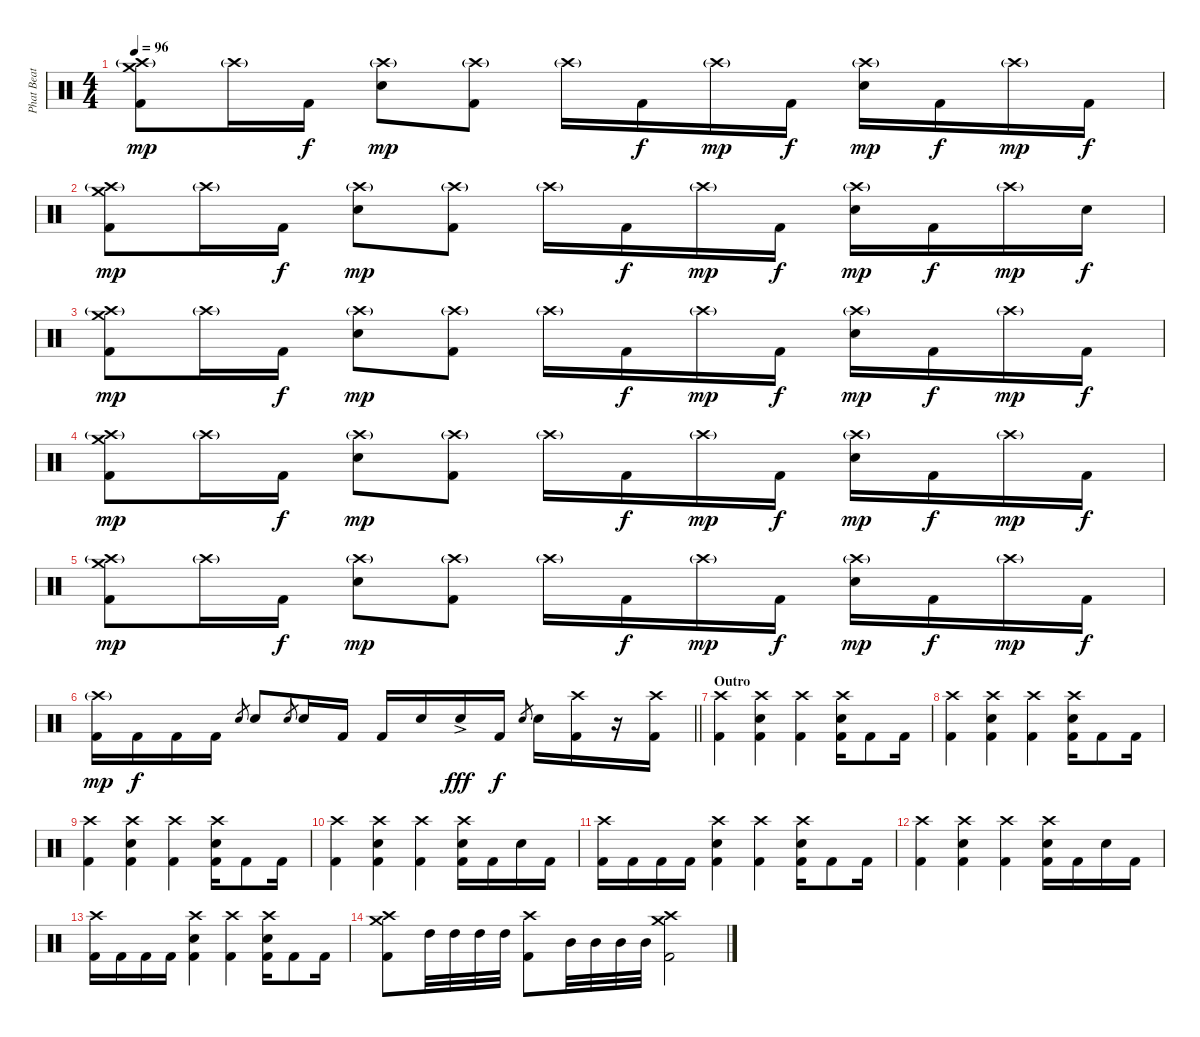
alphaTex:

\track ("Phat Beat" "Phat Beat") {instrument percussion}
\staff {score}
\articulation defaults
\ts (4 4)
\tempo 96
\clef neutral
\ks c
("Crash high (hit)"{g} "Crash medium (hit)" "Kick (hit) 2").8{dy mp} "Crash high (hit)"{g}.16 "Kick (hit) 2".16{dy f} ("Crash high (hit)"{g} "Snare (hit) 2").8{dy mp} ("Crash high (hit)"{g} "Kick (hit) 2").8 "Crash high (hit)"{g}.16 "Kick (hit) 2".16{dy f} "Crash high (hit)"{g}.16{dy mp} "Kick (hit) 2".16{dy f} ("Crash high (hit)"{g} "Snare (hit) 2").16{dy mp} "Kick (hit) 2".16{dy f} "Crash high (hit)"{g}.16{dy mp} "Kick (hit) 2".16{dy f} |
("Crash high (hit)"{g} "Crash medium (hit)" "Kick (hit) 2").8{dy mp} "Crash high (hit)"{g}.16 "Kick (hit) 2".16{dy f} ("Crash high (hit)"{g} "Snare (hit) 2").8{dy mp} ("Crash high (hit)"{g} "Kick (hit) 2").8 "Crash high (hit)"{g}.16 "Kick (hit) 2".16{dy f} "Crash high (hit)"{g}.16{dy mp} "Kick (hit) 2".16{dy f} ("Crash high (hit)"{g} "Snare (hit) 2").16{dy mp} "Kick (hit) 2".16{dy f} "Crash high (hit)"{g}.16{dy mp} "Snare (hit) 2".16{dy f} |
("Crash high (hit)"{g} "Crash medium (hit)" "Kick (hit) 2").8{dy mp} "Crash high (hit)"{g}.16 "Kick (hit) 2".16{dy f} ("Crash high (hit)"{g} "Snare (hit) 2").8{dy mp} ("Crash high (hit)"{g} "Kick (hit) 2").8 "Crash high (hit)"{g}.16 "Kick (hit) 2".16{dy f} "Crash high (hit)"{g}.16{dy mp} "Kick (hit) 2".16{dy f} ("Crash high (hit)"{g} "Snare (hit) 2").16{dy mp} "Kick (hit) 2".16{dy f} "Crash high (hit)"{g}.16{dy mp} "Kick (hit) 2".16{dy f} |
("Crash high (hit)"{g} "Crash medium (hit)" "Kick (hit) 2").8{dy mp} "Crash high (hit)"{g}.16 "Kick (hit) 2".16{dy f} ("Crash high (hit)"{g} "Snare (hit) 2").8{dy mp} ("Crash high (hit)"{g} "Kick (hit) 2").8 "Crash high (hit)"{g}.16 "Kick (hit) 2".16{dy f} "Crash high (hit)"{g}.16{dy mp} "Kick (hit) 2".16{dy f} ("Crash high (hit)"{g} "Snare (hit) 2").16{dy mp} "Kick (hit) 2".16{dy f} "Crash high (hit)"{g}.16{dy mp} "Kick (hit) 2".16{dy f} |
("Crash high (hit)"{g} "Crash medium (hit)" "Kick (hit) 2").8{dy mp} "Crash high (hit)"{g}.16 "Kick (hit) 2".16{dy f} ("Crash high (hit)"{g} "Snare (hit) 2").8{dy mp} ("Crash high (hit)"{g} "Kick (hit) 2").8 "Crash high (hit)"{g}.16 "Kick (hit) 2".16{dy f} "Crash high (hit)"{g}.16{dy mp} "Kick (hit) 2".16{dy f} ("Crash high (hit)"{g} "Snare (hit) 2").16{dy mp} "Kick (hit) 2".16{dy f} "Crash high (hit)"{g}.16{dy mp} "Kick (hit) 2".16{dy f} |
\barLineRight lightlight
("Crash high (hit)"{g} "Kick (hit) 2").16{dy mp} "Kick (hit) 2".16{dy f} "Kick (hit) 2".16 "Kick (hit) 2".16 "Snare (hit) 2".8{gr} "Snare (hit) 2".8 "Snare (hit) 2".8{gr} "Snare (hit) 2".16 "Kick (hit) 2".16 "Kick (hit) 2".16 "Snare (hit) 2".16 "Snare (hit) 2"{ac}.16{dy fff} "Kick (hit) 2".16{dy f} "Snare (hit) 2".8{gr} "Snare (hit) 2".16 ("Crash high (hit)" "Kick (hit) 2").16 r.16 ("Crash high (hit)" "Kick (hit) 2").16 |
\section ("" "Outro")
("Crash high (hit)" "Kick (hit) 2").4 ("Crash high (hit)" "Snare (hit) 2" "Kick (hit) 2").4 ("Crash high (hit)" "Kick (hit) 2").4 ("Crash high (hit)" "Snare (hit) 2" "Kick (hit) 2").16 "Kick (hit) 2".8 "Kick (hit) 2".16 |
("Crash high (hit)" "Kick (hit) 2").4 ("Crash high (hit)" "Snare (hit) 2" "Kick (hit) 2").4 ("Crash high (hit)" "Kick (hit) 2").4 ("Crash high (hit)" "Snare (hit) 2" "Kick (hit) 2").16 "Kick (hit) 2".8 "Kick (hit) 2".16 |
("Crash high (hit)" "Kick (hit) 2").4 ("Crash high (hit)" "Snare (hit) 2" "Kick (hit) 2").4 ("Crash high (hit)" "Kick (hit) 2").4 ("Crash high (hit)" "Snare (hit) 2" "Kick (hit) 2").16 "Kick (hit) 2".8 "Kick (hit) 2".16 |
("Crash high (hit)" "Kick (hit) 2").4 ("Crash high (hit)" "Snare (hit) 2" "Kick (hit) 2").4 ("Crash high (hit)" "Kick (hit) 2").4 ("Crash high (hit)" "Snare (hit) 2" "Kick (hit) 2").16 "Kick (hit) 2".16 "Snare (hit) 2".16 "Kick (hit) 2".16 |
("Crash high (hit)" "Kick (hit) 2").16 "Kick (hit) 2".16 "Kick (hit) 2".16 "Kick (hit) 2".16 ("Crash high (hit)" "Snare (hit) 2" "Kick (hit) 2").4 ("Crash high (hit)" "Kick (hit) 2").4 ("Crash high (hit)" "Snare (hit) 2" "Kick (hit) 2").16 "Kick (hit) 2".8 "Kick (hit) 2".16 |
("Crash high (hit)" "Kick (hit) 2").4 ("Crash high (hit)" "Snare (hit) 2" "Kick (hit) 2").4 ("Crash high (hit)" "Kick (hit) 2").4 ("Crash high (hit)" "Snare (hit) 2" "Kick (hit) 2").16 "Kick (hit) 2".16 "Snare (hit) 2".16 "Kick (hit) 2".16 |
("Crash high (hit)" "Kick (hit) 2").16 "Kick (hit) 2".16 "Kick (hit) 2".16 "Kick (hit) 2".16 ("Crash high (hit)" "Snare (hit) 2" "Kick (hit) 2").4 ("Crash high (hit)" "Kick (hit) 2").4 ("Crash high (hit)" "Snare (hit) 2" "Kick (hit) 2").16 "Kick (hit) 2".8 "Kick (hit) 2".16 |
("Crash high (hit)" "Crash medium (hit)" "Kick (hit) 2").8 "High Tom (hit)".32 "High Tom (hit)".32 "High Tom (hit)".32 "High Tom (hit)".32 ("Crash high (hit)" "Kick (hit) 2").8 "Mid Tom (hit)".32 "Mid Tom (hit)".32 "Mid Tom (hit)".32 "Mid Tom (hit)".32 ("Crash high (hit)" "Crash medium (hit)" "Kick (hit) 2").2
